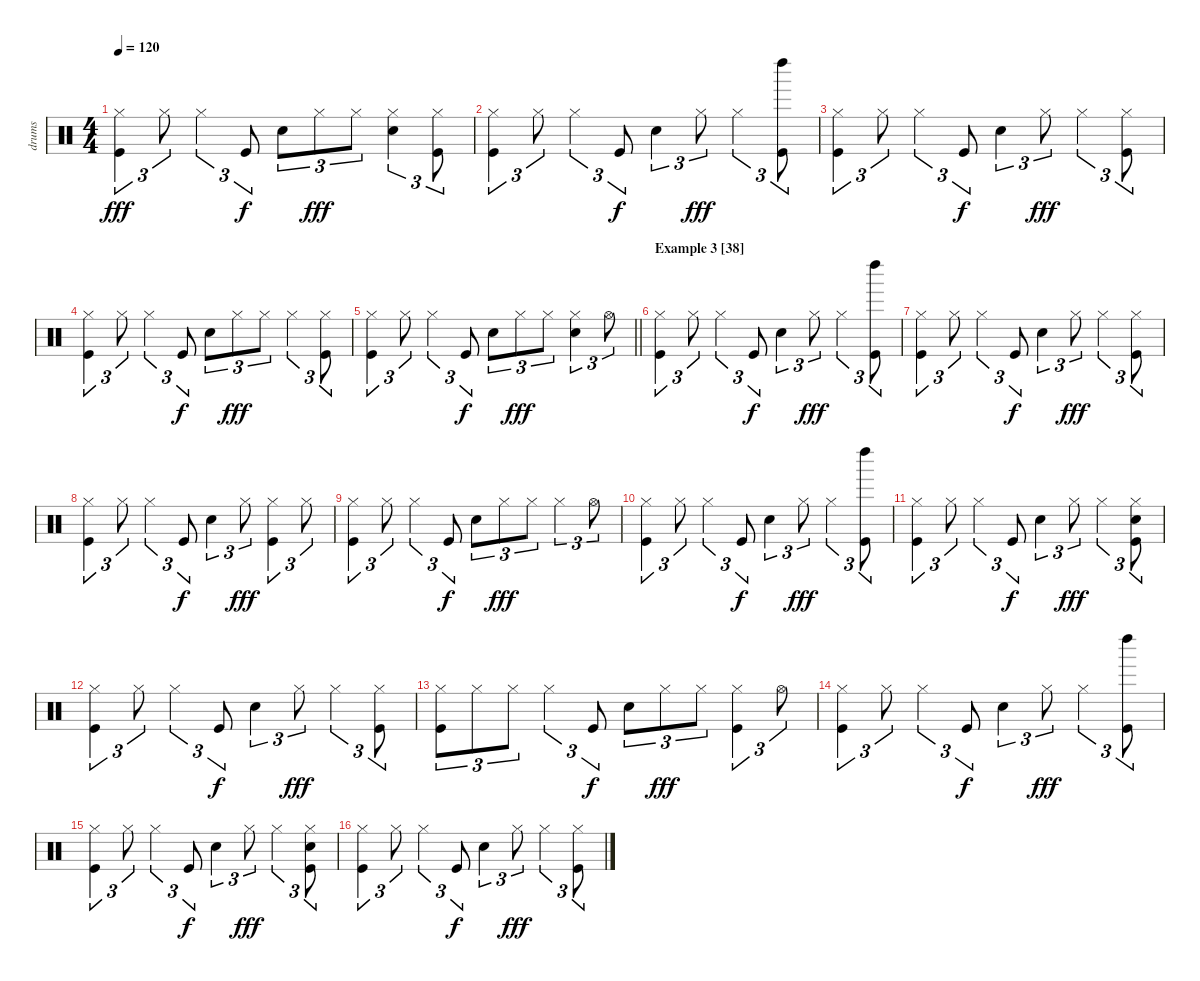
\track ("drums" "drums") {instrument percussion}
\staff {score}
\articulation defaults
\ts (4 4)
\tempo 120
\clef neutral
\ks c
("Hi-Hat (closed)" "Kick (hit)").4{tu (3 2) dy fff} "Hi-Hat (closed)".8{tu (3 2)} "Hi-Hat (closed)".4{tu (3 2)} "Kick (hit)".8{tu (3 2) dy f} "Snare (hit) 2".8{tu (3 2)} "Hi-Hat (closed)".8{tu (3 2) dy fff} "Hi-Hat (closed)".8{tu (3 2)} ("Snare (hit) 2" "Hi-Hat (closed)").4{tu (3 2)} ("Hi-Hat (closed)" "Kick (hit)").8{tu (3 2)} |
("Hi-Hat (closed)" "Kick (hit)").4{tu (3 2)} "Hi-Hat (closed)".8{tu (3 2)} "Hi-Hat (closed)".4{tu (3 2)} "Kick (hit)".8{tu (3 2) dy f} "Snare (hit) 2".4{tu (3 2)} "Hi-Hat (closed)".8{tu (3 2) dy fff} "Hi-Hat (closed)".4{tu (3 2)} ("Left Maraca (hit)" "Kick (hit)").8{tu (3 2)} |
("Hi-Hat (closed)" "Kick (hit)").4{tu (3 2)} "Hi-Hat (closed)".8{tu (3 2)} "Hi-Hat (closed)".4{tu (3 2)} "Kick (hit)".8{tu (3 2) dy f} "Snare (hit) 2".4{tu (3 2)} "Hi-Hat (closed)".8{tu (3 2) dy fff} "Hi-Hat (closed)".4{tu (3 2)} ("Hi-Hat (closed)" "Kick (hit)").8{tu (3 2)} |
("Hi-Hat (closed)" "Kick (hit)").4{tu (3 2)} "Hi-Hat (closed)".8{tu (3 2)} "Hi-Hat (closed)".4{tu (3 2)} "Kick (hit)".8{tu (3 2) dy f} "Snare (hit) 2".8{tu (3 2)} "Hi-Hat (closed)".8{tu (3 2) dy fff} "Hi-Hat (closed)".8{tu (3 2)} "Hi-Hat (closed)".4{tu (3 2)} ("Hi-Hat (closed)" "Kick (hit)").8{tu (3 2)} |
\barLineRight lightlight
("Hi-Hat (closed)" "Kick (hit)").4{tu (3 2)} "Hi-Hat (closed)".8{tu (3 2)} "Hi-Hat (closed)".4{tu (3 2)} "Kick (hit)".8{tu (3 2) dy f} "Snare (hit) 2".8{tu (3 2)} "Hi-Hat (closed)".8{tu (3 2) dy fff} "Hi-Hat (closed)".8{tu (3 2)} ("Snare (hit) 2" "Hi-Hat (closed)").4{tu (3 2)} "Hi-Hat (open)".8{tu (3 2)} |
\section ("" "Example 3 [38]")
("Hi-Hat (closed)" "Kick (hit)").4{tu (3 2)} "Hi-Hat (closed)".8{tu (3 2)} "Hi-Hat (closed)".4{tu (3 2)} "Kick (hit)".8{tu (3 2) dy f} "Snare (hit) 2".4{tu (3 2)} "Hi-Hat (closed)".8{tu (3 2) dy fff} "Hi-Hat (closed)".4{tu (3 2)} ("Left Maraca (hit)" "Kick (hit)").8{tu (3 2)} |
("Hi-Hat (closed)" "Kick (hit)").4{tu (3 2)} "Hi-Hat (closed)".8{tu (3 2)} "Hi-Hat (closed)".4{tu (3 2)} "Kick (hit)".8{tu (3 2) dy f} "Snare (hit) 2".4{tu (3 2)} "Hi-Hat (closed)".8{tu (3 2) dy fff} "Hi-Hat (closed)".4{tu (3 2)} ("Hi-Hat (closed)" "Kick (hit)").8{tu (3 2)} |
("Hi-Hat (closed)" "Kick (hit)").4{tu (3 2)} "Hi-Hat (closed)".8{tu (3 2)} "Hi-Hat (closed)".4{tu (3 2)} "Kick (hit)".8{tu (3 2) dy f} "Snare (hit) 2".4{tu (3 2)} "Hi-Hat (closed)".8{tu (3 2) dy fff} ("Hi-Hat (closed)" "Kick (hit)").4{tu (3 2)} "Hi-Hat (closed)".8{tu (3 2)} |
("Hi-Hat (closed)" "Kick (hit)").4{tu (3 2)} "Hi-Hat (closed)".8{tu (3 2)} "Hi-Hat (closed)".4{tu (3 2)} "Kick (hit)".8{tu (3 2) dy f} "Snare (hit) 2".8{tu (3 2)} "Hi-Hat (closed)".8{tu (3 2) dy fff} "Hi-Hat (closed)".8{tu (3 2)} "Hi-Hat (closed)".4{tu (3 2)} "Hi-Hat (open)".8{tu (3 2)} |
("Hi-Hat (closed)" "Kick (hit)").4{tu (3 2)} "Hi-Hat (closed)".8{tu (3 2)} "Hi-Hat (closed)".4{tu (3 2)} "Kick (hit)".8{tu (3 2) dy f} "Snare (hit) 2".4{tu (3 2)} "Hi-Hat (closed)".8{tu (3 2) dy fff} "Hi-Hat (closed)".4{tu (3 2)} ("Left Maraca (hit)" "Kick (hit)").8{tu (3 2)} |
("Hi-Hat (closed)" "Kick (hit)").4{tu (3 2)} "Hi-Hat (closed)".8{tu (3 2)} "Hi-Hat (closed)".4{tu (3 2)} "Kick (hit)".8{tu (3 2) dy f} "Snare (hit) 2".4{tu (3 2)} "Hi-Hat (closed)".8{tu (3 2) dy fff} "Hi-Hat (closed)".4{tu (3 2)} ("Snare (hit) 2" "Hi-Hat (closed)" "Kick (hit)").8{tu (3 2)} |
("Hi-Hat (closed)" "Kick (hit)").4{tu (3 2)} "Hi-Hat (closed)".8{tu (3 2)} "Hi-Hat (closed)".4{tu (3 2)} "Kick (hit)".8{tu (3 2) dy f} "Snare (hit) 2".4{tu (3 2)} "Hi-Hat (closed)".8{tu (3 2) dy fff} "Hi-Hat (closed)".4{tu (3 2)} ("Hi-Hat (closed)" "Kick (hit)").8{tu (3 2)} |
("Hi-Hat (closed)" "Kick (hit)").8{tu (3 2)} "Hi-Hat (closed)".8{tu (3 2)} "Hi-Hat (closed)".8{tu (3 2)} "Hi-Hat (closed)".4{tu (3 2)} "Kick (hit)".8{tu (3 2) dy f} "Snare (hit) 2".8{tu (3 2)} "Hi-Hat (closed)".8{tu (3 2) dy fff} "Hi-Hat (closed)".8{tu (3 2)} ("Hi-Hat (closed)" "Kick (hit)").4{tu (3 2)} "Hi-Hat (open)".8{tu (3 2)} |
("Hi-Hat (closed)" "Kick (hit)").4{tu (3 2)} "Hi-Hat (closed)".8{tu (3 2)} "Hi-Hat (closed)".4{tu (3 2)} "Kick (hit)".8{tu (3 2) dy f} "Snare (hit) 2".4{tu (3 2)} "Hi-Hat (closed)".8{tu (3 2) dy fff} "Hi-Hat (closed)".4{tu (3 2)} ("Left Maraca (hit)" "Kick (hit)").8{tu (3 2)} |
("Hi-Hat (closed)" "Kick (hit)").4{tu (3 2)} "Hi-Hat (closed)".8{tu (3 2)} "Hi-Hat (closed)".4{tu (3 2)} "Kick (hit)".8{tu (3 2) dy f} "Snare (hit) 2".4{tu (3 2)} "Hi-Hat (closed)".8{tu (3 2) dy fff} "Hi-Hat (closed)".4{tu (3 2)} ("Snare (hit) 2" "Hi-Hat (closed)" "Kick (hit)").8{tu (3 2)} |
("Hi-Hat (closed)" "Kick (hit)").4{tu (3 2)} "Hi-Hat (closed)".8{tu (3 2)} "Hi-Hat (closed)".4{tu (3 2)} "Kick (hit)".8{tu (3 2) dy f} "Snare (hit) 2".4{tu (3 2)} "Hi-Hat (closed)".8{tu (3 2) dy fff} "Hi-Hat (closed)".4{tu (3 2)} ("Hi-Hat (closed)" "Kick (hit)").8{tu (3 2)}
